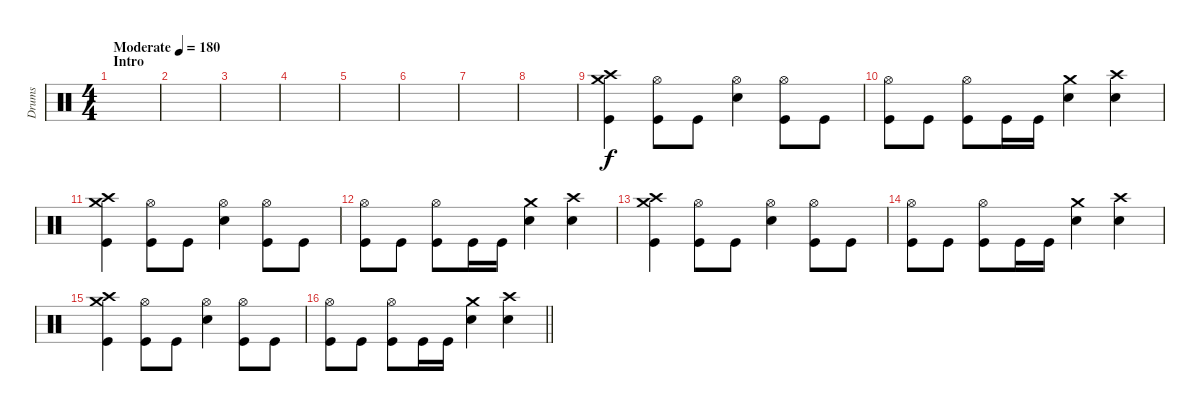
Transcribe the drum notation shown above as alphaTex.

\track ("Drums" "Drums") {instrument percussion}
\staff {score}
\articulation defaults
\ts (4 4)
\section ("" "Intro")
\tempo (180 "Moderate")
\clef neutral
\ks c
|
|
|
|
|
|
|
|
("Crash medium (hit)" "Crash high (hit)" "Kick (hit)").4 ("Hi-Hat (open)" "Kick (hit)").8 "Kick (hit)".8 ("Hi-Hat (open)" "Electric Snare (hit)").4 ("Hi-Hat (open)" "Kick (hit)").8 "Kick (hit)".8 |
("Hi-Hat (open)" "Kick (hit)").8 "Kick (hit)".8 ("Hi-Hat (open)" "Kick (hit)").8 "Kick (hit)".16 "Kick (hit)".16 ("Crash medium (hit)" "Electric Snare (hit)").4 ("Crash high (hit)" "Electric Snare (hit)").4 |
("Crash medium (hit)" "Crash high (hit)" "Kick (hit)").4 ("Hi-Hat (open)" "Kick (hit)").8 "Kick (hit)".8 ("Hi-Hat (open)" "Electric Snare (hit)").4 ("Hi-Hat (open)" "Kick (hit)").8 "Kick (hit)".8 |
("Hi-Hat (open)" "Kick (hit)").8 "Kick (hit)".8 ("Hi-Hat (open)" "Kick (hit)").8 "Kick (hit)".16 "Kick (hit)".16 ("Crash medium (hit)" "Electric Snare (hit)").4 ("Crash high (hit)" "Electric Snare (hit)").4 |
("Crash medium (hit)" "Crash high (hit)" "Kick (hit)").4 ("Hi-Hat (open)" "Kick (hit)").8 "Kick (hit)".8 ("Hi-Hat (open)" "Electric Snare (hit)").4 ("Hi-Hat (open)" "Kick (hit)").8 "Kick (hit)".8 |
("Hi-Hat (open)" "Kick (hit)").8 "Kick (hit)".8 ("Hi-Hat (open)" "Kick (hit)").8 "Kick (hit)".16 "Kick (hit)".16 ("Crash medium (hit)" "Electric Snare (hit)").4 ("Crash high (hit)" "Electric Snare (hit)").4 |
("Crash medium (hit)" "Crash high (hit)" "Kick (hit)").4 ("Hi-Hat (open)" "Kick (hit)").8 "Kick (hit)".8 ("Hi-Hat (open)" "Electric Snare (hit)").4 ("Hi-Hat (open)" "Kick (hit)").8 "Kick (hit)".8 |
\barLineRight lightlight
("Hi-Hat (open)" "Kick (hit)").8 "Kick (hit)".8 ("Hi-Hat (open)" "Kick (hit)").8 "Kick (hit)".16 "Kick (hit)".16 ("Crash medium (hit)" "Electric Snare (hit)").4 ("Crash high (hit)" "Electric Snare (hit)").4
